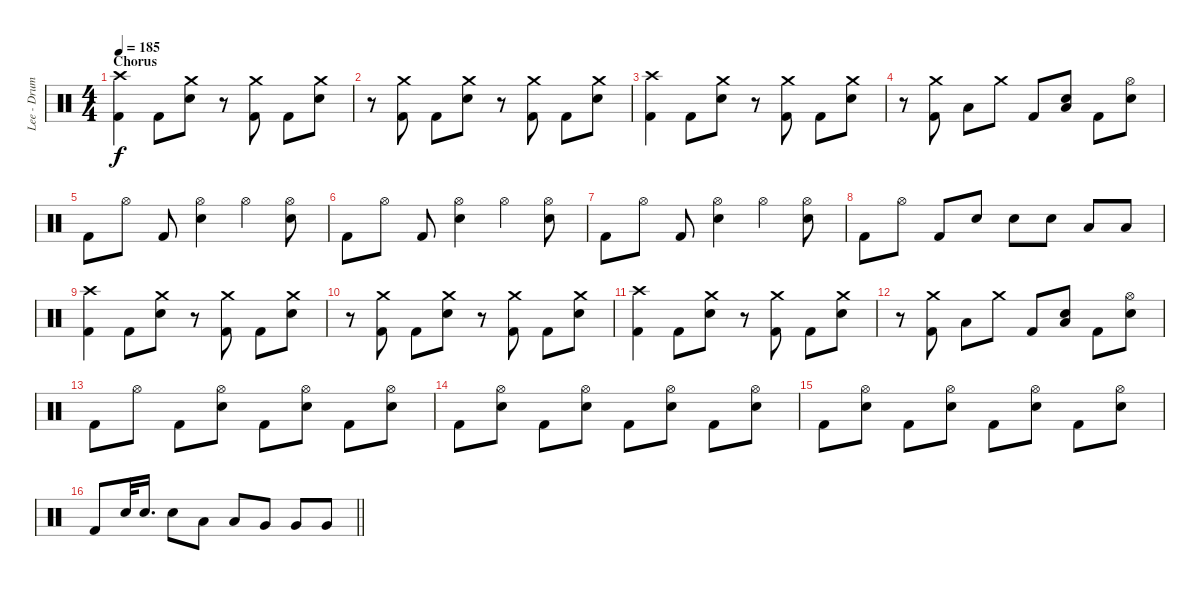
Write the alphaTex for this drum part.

\track ("Lee - Drums" "Lee - Drum") {instrument percussion}
\staff {score}
\articulation defaults
\ts (4 4)
\section ("" "Chorus")
\tempo 185
\clef neutral
\ks c
("Crash high (hit)" "Kick (hit) 2").4{dy f} "Kick (hit) 2".8 ("Crash medium (hit)" "Snare (hit) 2").8 r.8 ("Crash medium (hit)" "Kick (hit) 2").8 "Kick (hit) 2".8 ("Crash medium (hit)" "Snare (hit) 2").8 |
r.8 ("Crash medium (hit)" "Kick (hit) 2").8 "Kick (hit) 2".8 ("Crash medium (hit)" "Snare (hit) 2").8 r.8 ("Crash medium (hit)" "Kick (hit) 2").8 "Kick (hit) 2".8 ("Crash medium (hit)" "Snare (hit) 2").8 |
("Crash high (hit)" "Kick (hit) 2").4 "Kick (hit) 2".8 ("Crash medium (hit)" "Snare (hit) 2").8 r.8 ("Crash medium (hit)" "Kick (hit) 2").8 "Kick (hit) 2".8 ("Crash medium (hit)" "Snare (hit) 2").8 |
r.8 ("Crash medium (hit)" "Kick (hit) 2").8 "Low Tom (hit)".8 "Crash medium (hit)".8 "Kick (hit) 2".8 ("Snare (hit) 2" "Low Tom (hit)").8 "Kick (hit) 2".8 ("Hi-Hat (open)" "Snare (hit) 2").8 |
"Kick (hit) 2".8 "Hi-Hat (open)".8 "Kick (hit) 2".8 ("Hi-Hat (open)" "Snare (hit) 2").4 "Hi-Hat (open)".4 ("Hi-Hat (open)" "Snare (hit) 2").8 |
"Kick (hit) 2".8 "Hi-Hat (open)".8 "Kick (hit) 2".8 ("Hi-Hat (open)" "Snare (hit) 2").4 "Hi-Hat (open)".4 ("Hi-Hat (open)" "Snare (hit) 2").8 |
"Kick (hit) 2".8 "Hi-Hat (open)".8 "Kick (hit) 2".8 ("Hi-Hat (open)" "Snare (hit) 2").4 "Hi-Hat (open)".4 ("Hi-Hat (open)" "Snare (hit) 2").8 |
"Kick (hit) 2".8 "Hi-Hat (open)".8 "Kick (hit) 2".8 "Snare (hit) 2".8 "Snare (hit) 2".8 "Snare (hit) 2".8 "Low Tom (hit)".8 "Low Tom (hit)".8 |
("Crash high (hit)" "Kick (hit) 2").4 "Kick (hit) 2".8 ("Crash medium (hit)" "Snare (hit) 2").8 r.8 ("Crash medium (hit)" "Kick (hit) 2").8 "Kick (hit) 2".8 ("Crash medium (hit)" "Snare (hit) 2").8 |
r.8 ("Crash medium (hit)" "Kick (hit) 2").8 "Kick (hit) 2".8 ("Crash medium (hit)" "Snare (hit) 2").8 r.8 ("Crash medium (hit)" "Kick (hit) 2").8 "Kick (hit) 2".8 ("Crash medium (hit)" "Snare (hit) 2").8 |
("Crash high (hit)" "Kick (hit) 2").4 "Kick (hit) 2".8 ("Crash medium (hit)" "Snare (hit) 2").8 r.8 ("Crash medium (hit)" "Kick (hit) 2").8 "Kick (hit) 2".8 ("Crash medium (hit)" "Snare (hit) 2").8 |
r.8 ("Crash medium (hit)" "Kick (hit) 2").8 "Low Tom (hit)".8 "Crash medium (hit)".8 "Kick (hit) 2".8 ("Snare (hit) 2" "Low Tom (hit)").8 "Kick (hit) 2".8 ("Hi-Hat (open)" "Snare (hit) 2").8 |
"Kick (hit) 2".8 "Hi-Hat (open)".8 "Kick (hit) 2".8 ("Hi-Hat (open)" "Snare (hit) 2").8 "Kick (hit) 2".8 ("Hi-Hat (open)" "Snare (hit) 2").8 "Kick (hit) 2".8 ("Hi-Hat (open)" "Snare (hit) 2").8 |
"Kick (hit) 2".8 ("Hi-Hat (open)" "Snare (hit) 2").8 "Kick (hit) 2".8 ("Hi-Hat (open)" "Snare (hit) 2").8 "Kick (hit) 2".8 ("Hi-Hat (open)" "Snare (hit) 2").8 "Kick (hit) 2".8 ("Hi-Hat (open)" "Snare (hit) 2").8 |
"Kick (hit) 2".8 ("Hi-Hat (open)" "Snare (hit) 2").8 "Kick (hit) 2".8 ("Hi-Hat (open)" "Snare (hit) 2").8 "Kick (hit) 2".8 ("Hi-Hat (open)" "Snare (hit) 2").8 "Kick (hit) 2".8 ("Hi-Hat (open)" "Snare (hit) 2").8 |
\barLineRight lightlight "Kick (hit) 2".8 "Snare (hit) 2".32 "Snare (hit) 2".16{d} "Snare (hit) 2".8 "Low Tom (hit)".8 "Low Tom (hit)".8 "Very Low Tom (hit)".8 "Very Low Tom (hit)".8 "Very Low Tom (hit)".8
